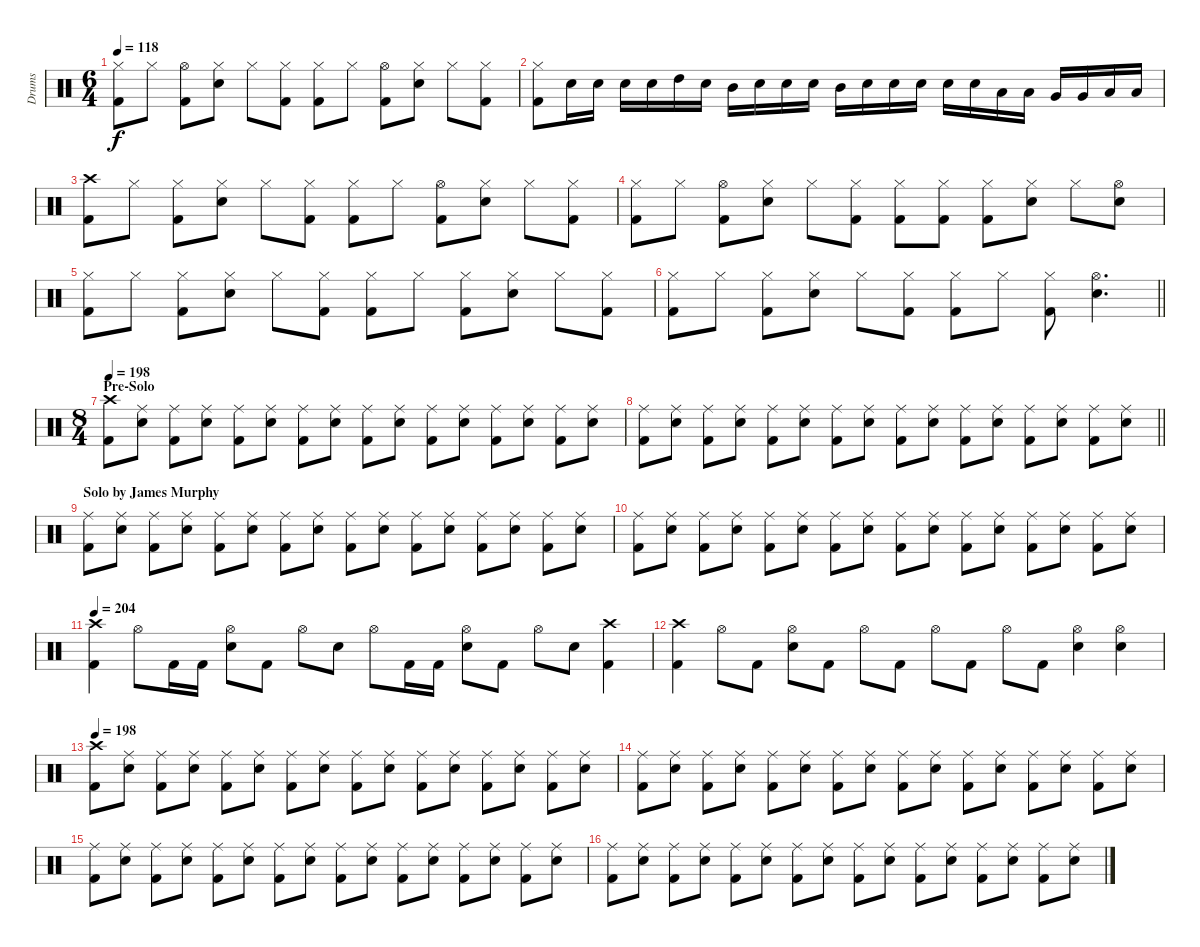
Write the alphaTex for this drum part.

\track ("Drums" "Drums") {instrument percussion}
\staff {score}
\articulation defaults
\ts (6 4)
\tempo 118
\clef neutral
\ks c
("Hi-Hat (closed)" "Kick (hit) 2").8{dy f} "Hi-Hat (closed)".8 ("Hi-Hat (open)" "Kick (hit) 2").8 ("Hi-Hat (closed)" "Snare (hit) 2").8 "Hi-Hat (closed)".8 ("Hi-Hat (closed)" "Kick (hit) 2").8 ("Hi-Hat (closed)" "Kick (hit) 2").8 "Hi-Hat (closed)".8 ("Hi-Hat (open)" "Kick (hit) 2").8 ("Hi-Hat (closed)" "Snare (hit) 2").8 "Hi-Hat (closed)".8 ("Hi-Hat (closed)" "Kick (hit) 2").8 |
("Hi-Hat (closed)" "Kick (hit) 2").8 "Snare (hit) 2".16 "Snare (hit) 2".16 "Snare (hit) 2".16 "Snare (hit) 2".16 "High Tom (hit)".16 "Snare (hit) 2".16 "Mid Tom (hit)".16 "Snare (hit) 2".16 "Snare (hit) 2".16 "Snare (hit) 2".16 "Mid Tom (hit)".16 "Snare (hit) 2".16 "Snare (hit) 2".16 "Snare (hit) 2".16 "Snare (hit) 2".16 "Snare (hit) 2".16 "Low Tom (hit)".16 "Low Tom (hit)".16 "Very Low Tom (hit)".16 "Very Low Tom (hit)".16 "Low Floor Tom (hit)".16 "Low Floor Tom (hit)".16 |
("Crash high (hit)" "Kick (hit) 2").8 "Hi-Hat (closed)".8 ("Hi-Hat (closed)" "Kick (hit) 2").8 ("Hi-Hat (closed)" "Snare (hit) 2").8 "Hi-Hat (closed)".8 ("Hi-Hat (closed)" "Kick (hit) 2").8 ("Hi-Hat (closed)" "Kick (hit) 2").8 "Hi-Hat (closed)".8 ("Hi-Hat (open)" "Kick (hit) 2").8 ("Hi-Hat (closed)" "Snare (hit) 2").8 "Hi-Hat (closed)".8 ("Hi-Hat (closed)" "Kick (hit) 2").8 |
("Hi-Hat (closed)" "Kick (hit) 2").8 "Hi-Hat (closed)".8 ("Hi-Hat (open)" "Kick (hit) 2").8 ("Hi-Hat (closed)" "Snare (hit) 2").8 "Hi-Hat (closed)".8 ("Hi-Hat (closed)" "Kick (hit) 2").8 ("Hi-Hat (closed)" "Kick (hit) 2").8 ("Hi-Hat (closed)" "Kick (hit) 2").8 ("Hi-Hat (closed)" "Kick (hit) 2").8 ("Hi-Hat (closed)" "Snare (hit) 2").8 "Hi-Hat (closed)".8 ("Hi-Hat (open)" "Snare (hit) 2").8 |
("Hi-Hat (closed)" "Kick (hit) 2").8 "Hi-Hat (closed)".8 ("Hi-Hat (closed)" "Kick (hit) 2").8 ("Hi-Hat (closed)" "Snare (hit) 2").8 "Hi-Hat (closed)".8 ("Hi-Hat (closed)" "Kick (hit) 2").8 ("Hi-Hat (closed)" "Kick (hit) 2").8 "Hi-Hat (closed)".8 ("Hi-Hat (closed)" "Kick (hit) 2").8 ("Hi-Hat (closed)" "Snare (hit) 2").8 "Hi-Hat (closed)".8 ("Hi-Hat (closed)" "Kick (hit) 2").8 |
\barLineRight lightlight
("Hi-Hat (closed)" "Kick (hit) 2").8 "Hi-Hat (closed)".8 ("Hi-Hat (closed)" "Kick (hit) 2").8 ("Hi-Hat (closed)" "Snare (hit) 2").8 "Hi-Hat (closed)".8 ("Hi-Hat (closed)" "Kick (hit) 2").8 ("Hi-Hat (closed)" "Kick (hit) 2").8 "Hi-Hat (closed)".8 ("Hi-Hat (closed)" "Kick (hit) 2").8 ("Hi-Hat (open)" "Snare (hit) 2").4{d} |
\ts (8 4)
\section ("" "Pre-Solo")
\tempo 198
("Crash high (hit)" "Kick (hit) 2").8 ("Ride (middle)" "Snare (hit) 2").8 ("Ride (middle)" "Kick (hit) 2").8 ("Ride (middle)" "Snare (hit) 2").8 ("Ride (middle)" "Kick (hit) 2").8 ("Ride (middle)" "Snare (hit) 2").8 ("Ride (middle)" "Kick (hit) 2").8 ("Ride (middle)" "Snare (hit) 2").8 ("Ride (middle)" "Kick (hit) 2").8 ("Ride (middle)" "Snare (hit) 2").8 ("Ride (middle)" "Kick (hit) 2").8 ("Ride (middle)" "Snare (hit) 2").8 ("Ride (middle)" "Kick (hit) 2").8 ("Ride (middle)" "Snare (hit) 2").8 ("Ride (middle)" "Kick (hit) 2").8 ("Ride (middle)" "Snare (hit) 2").8 |
\barLineRight lightlight
("Ride (middle)" "Kick (hit) 2").8 ("Ride (middle)" "Snare (hit) 2").8 ("Ride (middle)" "Kick (hit) 2").8 ("Ride (middle)" "Snare (hit) 2").8 ("Ride (middle)" "Kick (hit) 2").8 ("Ride (middle)" "Snare (hit) 2").8 ("Ride (middle)" "Kick (hit) 2").8 ("Ride (middle)" "Snare (hit) 2").8 ("Ride (middle)" "Kick (hit) 2").8 ("Ride (middle)" "Snare (hit) 2").8 ("Ride (middle)" "Kick (hit) 2").8 ("Ride (middle)" "Snare (hit) 2").8 ("Ride (middle)" "Kick (hit) 2").8 ("Ride (middle)" "Snare (hit) 2").8 ("Ride (middle)" "Kick (hit) 2").8 ("Ride (middle)" "Snare (hit) 2").8 |
\section ("" "Solo by James Murphy")
("Ride (middle)" "Kick (hit) 2").8 ("Ride (middle)" "Snare (hit) 2").8 ("Ride (middle)" "Kick (hit) 2").8 ("Ride (middle)" "Snare (hit) 2").8 ("Ride (middle)" "Kick (hit) 2").8 ("Ride (middle)" "Snare (hit) 2").8 ("Ride (middle)" "Kick (hit) 2").8 ("Ride (middle)" "Snare (hit) 2").8 ("Ride (middle)" "Kick (hit) 2").8 ("Ride (middle)" "Snare (hit) 2").8 ("Ride (middle)" "Kick (hit) 2").8 ("Ride (middle)" "Snare (hit) 2").8 ("Ride (middle)" "Kick (hit) 2").8 ("Ride (middle)" "Snare (hit) 2").8 ("Ride (middle)" "Kick (hit) 2").8 ("Ride (middle)" "Snare (hit) 2").8 |
("Ride (middle)" "Kick (hit) 2").8 ("Ride (middle)" "Snare (hit) 2").8 ("Ride (middle)" "Kick (hit) 2").8 ("Ride (middle)" "Snare (hit) 2").8 ("Ride (middle)" "Kick (hit) 2").8 ("Ride (middle)" "Snare (hit) 2").8 ("Ride (middle)" "Kick (hit) 2").8 ("Ride (middle)" "Snare (hit) 2").8 ("Ride (middle)" "Kick (hit) 2").8 ("Ride (middle)" "Snare (hit) 2").8 ("Ride (middle)" "Kick (hit) 2").8 ("Ride (middle)" "Snare (hit) 2").8 ("Ride (middle)" "Kick (hit) 2").8 ("Ride (middle)" "Snare (hit) 2").8 ("Ride (middle)" "Kick (hit) 2").8 ("Ride (middle)" "Snare (hit) 2").8 |
\tempo 204
("Crash high (hit)" "Kick (hit) 2").4 "Hi-Hat (open)".8 "Kick (hit) 2".16 "Kick (hit) 2".16 ("Hi-Hat (open)" "Snare (hit) 2").8 "Kick (hit) 2".8 "Hi-Hat (open)".8 "Snare (hit) 2".8 "Hi-Hat (open)".8 "Kick (hit) 2".16 "Kick (hit) 2".16 ("Hi-Hat (open)" "Snare (hit) 2").8 "Kick (hit) 2".8 "Hi-Hat (open)".8 "Snare (hit) 2".8 ("Crash high (hit)" "Kick (hit) 2").4 |
("Crash high (hit)" "Kick (hit) 2").4 "Hi-Hat (open)".8 "Kick (hit) 2".8 ("Hi-Hat (open)" "Snare (hit) 2").8 "Kick (hit) 2".8 "Hi-Hat (open)".8 "Kick (hit) 2".8 "Hi-Hat (open)".8 "Kick (hit) 2".8 "Hi-Hat (open)".8 "Kick (hit) 2".8 ("Hi-Hat (open)" "Snare (hit) 2").4 ("Hi-Hat (open)" "Snare (hit) 2").4 |
\tempo 198
("Crash high (hit)" "Kick (hit) 2").8 ("Ride (middle)" "Snare (hit) 2").8 ("Ride (middle)" "Kick (hit) 2").8 ("Ride (middle)" "Snare (hit) 2").8 ("Ride (middle)" "Kick (hit) 2").8 ("Ride (middle)" "Snare (hit) 2").8 ("Ride (middle)" "Kick (hit) 2").8 ("Ride (middle)" "Snare (hit) 2").8 ("Ride (middle)" "Kick (hit) 2").8 ("Ride (middle)" "Snare (hit) 2").8 ("Ride (middle)" "Kick (hit) 2").8 ("Ride (middle)" "Snare (hit) 2").8 ("Ride (middle)" "Kick (hit) 2").8 ("Ride (middle)" "Snare (hit) 2").8 ("Ride (middle)" "Kick (hit) 2").8 ("Ride (middle)" "Snare (hit) 2").8 |
("Ride (middle)" "Kick (hit) 2").8 ("Ride (middle)" "Snare (hit) 2").8 ("Ride (middle)" "Kick (hit) 2").8 ("Ride (middle)" "Snare (hit) 2").8 ("Ride (middle)" "Kick (hit) 2").8 ("Ride (middle)" "Snare (hit) 2").8 ("Ride (middle)" "Kick (hit) 2").8 ("Ride (middle)" "Snare (hit) 2").8 ("Ride (middle)" "Kick (hit) 2").8 ("Ride (middle)" "Snare (hit) 2").8 ("Ride (middle)" "Kick (hit) 2").8 ("Ride (middle)" "Snare (hit) 2").8 ("Ride (middle)" "Kick (hit) 2").8 ("Ride (middle)" "Snare (hit) 2").8 ("Ride (middle)" "Kick (hit) 2").8 ("Ride (middle)" "Snare (hit) 2").8 |
("Ride (middle)" "Kick (hit) 2").8 ("Ride (middle)" "Snare (hit) 2").8 ("Ride (middle)" "Kick (hit) 2").8 ("Ride (middle)" "Snare (hit) 2").8 ("Ride (middle)" "Kick (hit) 2").8 ("Ride (middle)" "Snare (hit) 2").8 ("Ride (middle)" "Kick (hit) 2").8 ("Ride (middle)" "Snare (hit) 2").8 ("Ride (middle)" "Kick (hit) 2").8 ("Ride (middle)" "Snare (hit) 2").8 ("Ride (middle)" "Kick (hit) 2").8 ("Ride (middle)" "Snare (hit) 2").8 ("Ride (middle)" "Kick (hit) 2").8 ("Ride (middle)" "Snare (hit) 2").8 ("Ride (middle)" "Kick (hit) 2").8 ("Ride (middle)" "Snare (hit) 2").8 |
("Ride (middle)" "Kick (hit) 2").8 ("Ride (middle)" "Snare (hit) 2").8 ("Ride (middle)" "Kick (hit) 2").8 ("Ride (middle)" "Snare (hit) 2").8 ("Ride (middle)" "Kick (hit) 2").8 ("Ride (middle)" "Snare (hit) 2").8 ("Ride (middle)" "Kick (hit) 2").8 ("Ride (middle)" "Snare (hit) 2").8 ("Ride (middle)" "Kick (hit) 2").8 ("Ride (middle)" "Snare (hit) 2").8 ("Ride (middle)" "Kick (hit) 2").8 ("Ride (middle)" "Snare (hit) 2").8 ("Ride (middle)" "Kick (hit) 2").8 ("Ride (middle)" "Snare (hit) 2").8 ("Ride (middle)" "Kick (hit) 2").8 ("Ride (middle)" "Snare (hit) 2").8
